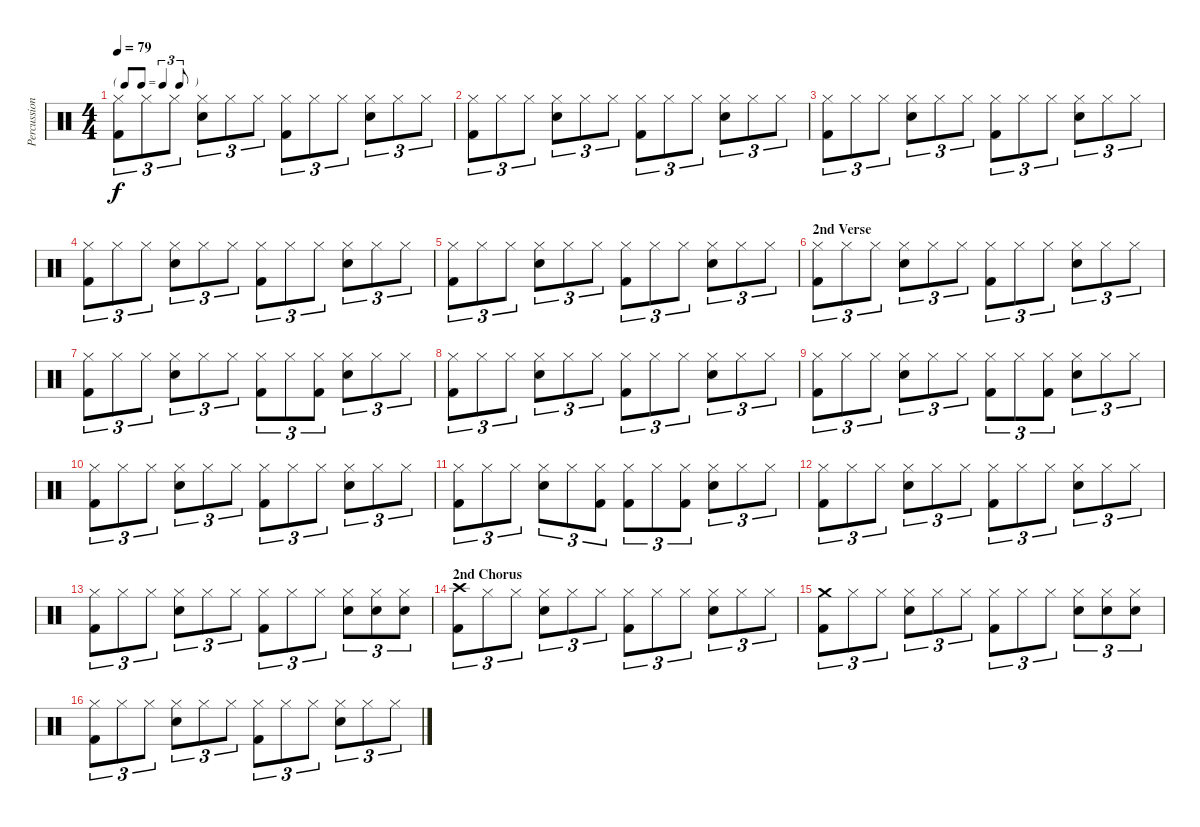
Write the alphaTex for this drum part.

\track ("Percussion" "Percussion") {instrument percussion}
\staff {score}
\articulation defaults
\ts (4 4)
\tf triplet8th
\tempo 79
\clef neutral
\ks c
("Hi-Hat (closed)" "Kick (hit) 2").8{tu (3 2) dy f} "Hi-Hat (closed)".8{tu (3 2)} "Hi-Hat (closed)".8{tu (3 2)} ("Hi-Hat (closed)" "Snare (hit) 2").8{tu (3 2)} "Hi-Hat (closed)".8{tu (3 2)} "Hi-Hat (closed)".8{tu (3 2)} ("Hi-Hat (closed)" "Kick (hit) 2").8{tu (3 2)} "Hi-Hat (closed)".8{tu (3 2)} "Hi-Hat (closed)".8{tu (3 2)} ("Hi-Hat (closed)" "Snare (hit) 2").8{tu (3 2)} "Hi-Hat (closed)".8{tu (3 2)} "Hi-Hat (closed)".8{tu (3 2)} |
("Hi-Hat (closed)" "Kick (hit) 2").8{tu (3 2)} "Hi-Hat (closed)".8{tu (3 2)} "Hi-Hat (closed)".8{tu (3 2)} ("Hi-Hat (closed)" "Snare (hit) 2").8{tu (3 2)} "Hi-Hat (closed)".8{tu (3 2)} "Hi-Hat (closed)".8{tu (3 2)} ("Hi-Hat (closed)" "Kick (hit) 2").8{tu (3 2)} "Hi-Hat (closed)".8{tu (3 2)} "Hi-Hat (closed)".8{tu (3 2)} ("Hi-Hat (closed)" "Snare (hit) 2").8{tu (3 2)} "Hi-Hat (closed)".8{tu (3 2)} "Hi-Hat (closed)".8{tu (3 2)} |
("Hi-Hat (closed)" "Kick (hit) 2").8{tu (3 2)} "Hi-Hat (closed)".8{tu (3 2)} "Hi-Hat (closed)".8{tu (3 2)} ("Hi-Hat (closed)" "Snare (hit) 2").8{tu (3 2)} "Hi-Hat (closed)".8{tu (3 2)} "Hi-Hat (closed)".8{tu (3 2)} ("Hi-Hat (closed)" "Kick (hit) 2").8{tu (3 2)} "Hi-Hat (closed)".8{tu (3 2)} "Hi-Hat (closed)".8{tu (3 2)} ("Hi-Hat (closed)" "Snare (hit) 2").8{tu (3 2)} "Hi-Hat (closed)".8{tu (3 2)} "Hi-Hat (closed)".8{tu (3 2)} |
("Hi-Hat (closed)" "Kick (hit) 2").8{tu (3 2)} "Hi-Hat (closed)".8{tu (3 2)} "Hi-Hat (closed)".8{tu (3 2)} ("Hi-Hat (closed)" "Snare (hit) 2").8{tu (3 2)} "Hi-Hat (closed)".8{tu (3 2)} "Hi-Hat (closed)".8{tu (3 2)} ("Hi-Hat (closed)" "Kick (hit) 2").8{tu (3 2)} "Hi-Hat (closed)".8{tu (3 2)} "Hi-Hat (closed)".8{tu (3 2)} ("Hi-Hat (closed)" "Snare (hit) 2").8{tu (3 2)} "Hi-Hat (closed)".8{tu (3 2)} "Hi-Hat (closed)".8{tu (3 2)} |
("Hi-Hat (closed)" "Kick (hit) 2").8{tu (3 2)} "Hi-Hat (closed)".8{tu (3 2)} "Hi-Hat (closed)".8{tu (3 2)} ("Hi-Hat (closed)" "Snare (hit) 2").8{tu (3 2)} "Hi-Hat (closed)".8{tu (3 2)} "Hi-Hat (closed)".8{tu (3 2)} ("Hi-Hat (closed)" "Kick (hit) 2").8{tu (3 2)} "Hi-Hat (closed)".8{tu (3 2)} "Hi-Hat (closed)".8{tu (3 2)} ("Hi-Hat (closed)" "Snare (hit) 2").8{tu (3 2)} "Hi-Hat (closed)".8{tu (3 2)} "Hi-Hat (closed)".8{tu (3 2)} |
\section ("" "2nd Verse")
("Hi-Hat (closed)" "Kick (hit) 2").8{tu (3 2)} "Hi-Hat (closed)".8{tu (3 2)} "Hi-Hat (closed)".8{tu (3 2)} ("Hi-Hat (closed)" "Snare (hit) 2").8{tu (3 2)} "Hi-Hat (closed)".8{tu (3 2)} "Hi-Hat (closed)".8{tu (3 2)} ("Hi-Hat (closed)" "Kick (hit) 2").8{tu (3 2)} "Hi-Hat (closed)".8{tu (3 2)} "Hi-Hat (closed)".8{tu (3 2)} ("Hi-Hat (closed)" "Snare (hit) 2").8{tu (3 2)} "Hi-Hat (closed)".8{tu (3 2)} "Hi-Hat (closed)".8{tu (3 2)} |
("Hi-Hat (closed)" "Kick (hit) 2").8{tu (3 2)} "Hi-Hat (closed)".8{tu (3 2)} "Hi-Hat (closed)".8{tu (3 2)} ("Hi-Hat (closed)" "Snare (hit) 2").8{tu (3 2)} "Hi-Hat (closed)".8{tu (3 2)} "Hi-Hat (closed)".8{tu (3 2)} ("Hi-Hat (closed)" "Kick (hit) 2").8{tu (3 2)} "Hi-Hat (closed)".8{tu (3 2)} ("Hi-Hat (closed)" "Kick (hit) 2").8{tu (3 2)} ("Hi-Hat (closed)" "Snare (hit) 2").8{tu (3 2)} "Hi-Hat (closed)".8{tu (3 2)} "Hi-Hat (closed)".8{tu (3 2)} |
("Hi-Hat (closed)" "Kick (hit) 2").8{tu (3 2)} "Hi-Hat (closed)".8{tu (3 2)} "Hi-Hat (closed)".8{tu (3 2)} ("Hi-Hat (closed)" "Snare (hit) 2").8{tu (3 2)} "Hi-Hat (closed)".8{tu (3 2)} "Hi-Hat (closed)".8{tu (3 2)} ("Hi-Hat (closed)" "Kick (hit) 2").8{tu (3 2)} "Hi-Hat (closed)".8{tu (3 2)} "Hi-Hat (closed)".8{tu (3 2)} ("Hi-Hat (closed)" "Snare (hit) 2").8{tu (3 2)} "Hi-Hat (closed)".8{tu (3 2)} "Hi-Hat (closed)".8{tu (3 2)} |
("Hi-Hat (closed)" "Kick (hit) 2").8{tu (3 2)} "Hi-Hat (closed)".8{tu (3 2)} "Hi-Hat (closed)".8{tu (3 2)} ("Hi-Hat (closed)" "Snare (hit) 2").8{tu (3 2)} "Hi-Hat (closed)".8{tu (3 2)} "Hi-Hat (closed)".8{tu (3 2)} ("Hi-Hat (closed)" "Kick (hit) 2").8{tu (3 2)} "Hi-Hat (closed)".8{tu (3 2)} ("Hi-Hat (closed)" "Kick (hit) 2").8{tu (3 2)} ("Hi-Hat (closed)" "Snare (hit) 2").8{tu (3 2)} "Hi-Hat (closed)".8{tu (3 2)} "Hi-Hat (closed)".8{tu (3 2)} |
("Hi-Hat (closed)" "Kick (hit) 2").8{tu (3 2)} "Hi-Hat (closed)".8{tu (3 2)} "Hi-Hat (closed)".8{tu (3 2)} ("Hi-Hat (closed)" "Snare (hit) 2").8{tu (3 2)} "Hi-Hat (closed)".8{tu (3 2)} "Hi-Hat (closed)".8{tu (3 2)} ("Hi-Hat (closed)" "Kick (hit) 2").8{tu (3 2)} "Hi-Hat (closed)".8{tu (3 2)} "Hi-Hat (closed)".8{tu (3 2)} ("Hi-Hat (closed)" "Snare (hit) 2").8{tu (3 2)} "Hi-Hat (closed)".8{tu (3 2)} "Hi-Hat (closed)".8{tu (3 2)} |
("Hi-Hat (closed)" "Kick (hit) 2").8{tu (3 2)} "Hi-Hat (closed)".8{tu (3 2)} "Hi-Hat (closed)".8{tu (3 2)} ("Hi-Hat (closed)" "Snare (hit) 2").8{tu (3 2)} "Hi-Hat (closed)".8{tu (3 2)} ("Hi-Hat (closed)" "Kick (hit) 2").8{tu (3 2)} ("Hi-Hat (closed)" "Kick (hit) 2").8{tu (3 2)} "Hi-Hat (closed)".8{tu (3 2)} ("Hi-Hat (closed)" "Kick (hit) 2").8{tu (3 2)} ("Hi-Hat (closed)" "Snare (hit) 2").8{tu (3 2)} "Hi-Hat (closed)".8{tu (3 2)} "Hi-Hat (closed)".8{tu (3 2)} |
("Hi-Hat (closed)" "Kick (hit) 2").8{tu (3 2)} "Hi-Hat (closed)".8{tu (3 2)} "Hi-Hat (closed)".8{tu (3 2)} ("Hi-Hat (closed)" "Snare (hit) 2").8{tu (3 2)} "Hi-Hat (closed)".8{tu (3 2)} "Hi-Hat (closed)".8{tu (3 2)} ("Hi-Hat (closed)" "Kick (hit) 2").8{tu (3 2)} "Hi-Hat (closed)".8{tu (3 2)} "Hi-Hat (closed)".8{tu (3 2)} ("Hi-Hat (closed)" "Snare (hit) 2").8{tu (3 2)} "Hi-Hat (closed)".8{tu (3 2)} "Hi-Hat (closed)".8{tu (3 2)} |
("Hi-Hat (closed)" "Kick (hit) 2").8{tu (3 2)} "Hi-Hat (closed)".8{tu (3 2)} "Hi-Hat (closed)".8{tu (3 2)} ("Hi-Hat (closed)" "Snare (hit) 2").8{tu (3 2)} "Hi-Hat (closed)".8{tu (3 2)} "Hi-Hat (closed)".8{tu (3 2)} ("Hi-Hat (closed)" "Kick (hit) 2").8{tu (3 2)} "Hi-Hat (closed)".8{tu (3 2)} "Hi-Hat (closed)".8{tu (3 2)} ("Hi-Hat (closed)" "Snare (hit) 2").8{tu (3 2)} ("Hi-Hat (closed)" "Snare (hit) 2").8{tu (3 2)} ("Hi-Hat (closed)" "Snare (hit) 2").8{tu (3 2)} |
\section ("" "2nd Chorus")
("Crash high (hit)" "Kick (hit) 2").8{tu (3 2)} "Hi-Hat (closed)".8{tu (3 2)} "Hi-Hat (closed)".8{tu (3 2)} ("Hi-Hat (closed)" "Snare (hit) 2").8{tu (3 2)} "Hi-Hat (closed)".8{tu (3 2)} "Hi-Hat (closed)".8{tu (3 2)} ("Hi-Hat (closed)" "Kick (hit) 2").8{tu (3 2)} "Hi-Hat (closed)".8{tu (3 2)} "Hi-Hat (closed)".8{tu (3 2)} ("Hi-Hat (closed)" "Snare (hit) 2").8{tu (3 2)} "Hi-Hat (closed)".8{tu (3 2)} "Hi-Hat (closed)".8{tu (3 2)} |
("Crash medium (hit)" "Kick (hit) 2").8{tu (3 2)} "Hi-Hat (closed)".8{tu (3 2)} "Hi-Hat (closed)".8{tu (3 2)} ("Hi-Hat (closed)" "Snare (hit) 2").8{tu (3 2)} "Hi-Hat (closed)".8{tu (3 2)} "Hi-Hat (closed)".8{tu (3 2)} ("Hi-Hat (closed)" "Kick (hit) 2").8{tu (3 2)} "Hi-Hat (closed)".8{tu (3 2)} "Hi-Hat (closed)".8{tu (3 2)} ("Hi-Hat (closed)" "Snare (hit) 2").8{tu (3 2)} ("Hi-Hat (closed)" "Snare (hit) 2").8{tu (3 2)} ("Hi-Hat (closed)" "Snare (hit) 2").8{tu (3 2)} |
("Hi-Hat (closed)" "Kick (hit) 2").8{tu (3 2)} "Hi-Hat (closed)".8{tu (3 2)} "Hi-Hat (closed)".8{tu (3 2)} ("Hi-Hat (closed)" "Snare (hit) 2").8{tu (3 2)} "Hi-Hat (closed)".8{tu (3 2)} "Hi-Hat (closed)".8{tu (3 2)} ("Hi-Hat (closed)" "Kick (hit) 2").8{tu (3 2)} "Hi-Hat (closed)".8{tu (3 2)} "Hi-Hat (closed)".8{tu (3 2)} ("Hi-Hat (closed)" "Snare (hit) 2").8{tu (3 2)} "Hi-Hat (closed)".8{tu (3 2)} "Hi-Hat (closed)".8{tu (3 2)}
